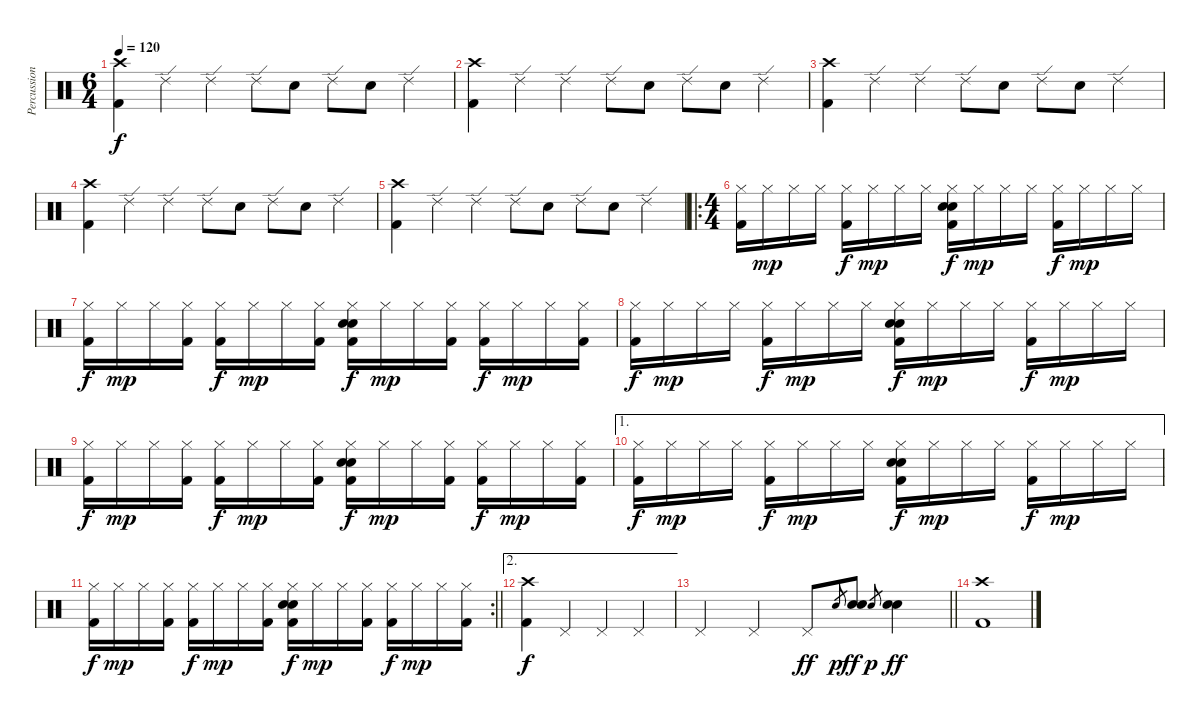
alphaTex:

\track ("Percussions" "Percussion") {instrument percussion}
\staff {score}
\articulation defaults
\ts (6 4)
\tempo 120
\clef neutral
\ks c
("Crash high (hit)" "Kick (hit) 2").4{dy f} "Ride (edge) 2".4 "Ride (edge) 2".4 "Ride (edge) 2".8 "Electric Snare (hit)".8 "Ride (edge) 2".8 "Electric Snare (hit)".8 "Ride (edge) 2".4 |
("Crash high (hit)" "Kick (hit) 2").4 "Ride (edge) 2".4 "Ride (edge) 2".4 "Ride (edge) 2".8 "Electric Snare (hit)".8 "Ride (edge) 2".8 "Electric Snare (hit)".8 "Ride (edge) 2".4 |
("Crash high (hit)" "Kick (hit) 2").4 "Ride (edge) 2".4 "Ride (edge) 2".4 "Ride (edge) 2".8 "Electric Snare (hit)".8 "Ride (edge) 2".8 "Electric Snare (hit)".8 "Ride (edge) 2".4 |
("Crash high (hit)" "Kick (hit) 2").4 "Ride (edge) 2".4 "Ride (edge) 2".4 "Ride (edge) 2".8 "Electric Snare (hit)".8 "Ride (edge) 2".8 "Electric Snare (hit)".8 "Ride (edge) 2".4 |
("Crash high (hit)" "Kick (hit) 2").4 "Ride (edge) 2".4 "Ride (edge) 2".4 "Ride (edge) 2".8 "Electric Snare (hit)".8 "Ride (edge) 2".8 "Electric Snare (hit)".8 "Ride (edge) 2".4 |
\ro
\ts (4 4)
\section ("" "")
("Hi-Hat (closed)" "Kick (hit) 2").16 "Hi-Hat (closed)".16{dy mp} "Hi-Hat (closed)".16 "Hi-Hat (closed)".16 ("Hi-Hat (closed)" "Kick (hit) 2").16{dy f} "Hi-Hat (closed)".16{dy mp} "Hi-Hat (closed)".16 "Hi-Hat (closed)".16 ("Hi-Hat (closed)" "Electric Snare (hit)" "Hand Clap (hit)" "Kick (hit) 2").16{dy f} "Hi-Hat (closed)".16{dy mp} "Hi-Hat (closed)".16 "Hi-Hat (closed)".16 ("Hi-Hat (closed)" "Kick (hit) 2").16{dy f} "Hi-Hat (closed)".16{dy mp} "Hi-Hat (closed)".16 "Hi-Hat (closed)".16 |
("Hi-Hat (closed)" "Kick (hit) 2").16{dy f} "Hi-Hat (closed)".16{dy mp} "Hi-Hat (closed)".16 ("Hi-Hat (closed)" "Kick (hit) 2").16 ("Hi-Hat (closed)" "Kick (hit) 2").16{dy f} "Hi-Hat (closed)".16{dy mp} "Hi-Hat (closed)".16 ("Hi-Hat (closed)" "Kick (hit) 2").16 ("Hi-Hat (closed)" "Electric Snare (hit)" "Hand Clap (hit)" "Kick (hit) 2").16{dy f} "Hi-Hat (closed)".16{dy mp} "Hi-Hat (closed)".16 ("Hi-Hat (closed)" "Kick (hit) 2").16 ("Hi-Hat (closed)" "Kick (hit) 2").16{dy f} "Hi-Hat (closed)".16{dy mp} "Hi-Hat (closed)".16 ("Hi-Hat (closed)" "Kick (hit) 2").16 |
("Hi-Hat (closed)" "Kick (hit) 2").16{dy f} "Hi-Hat (closed)".16{dy mp} "Hi-Hat (closed)".16 "Hi-Hat (closed)".16 ("Hi-Hat (closed)" "Kick (hit) 2").16{dy f} "Hi-Hat (closed)".16{dy mp} "Hi-Hat (closed)".16 "Hi-Hat (closed)".16 ("Hi-Hat (closed)" "Electric Snare (hit)" "Hand Clap (hit)" "Kick (hit) 2").16{dy f} "Hi-Hat (closed)".16{dy mp} "Hi-Hat (closed)".16 "Hi-Hat (closed)".16 ("Hi-Hat (closed)" "Kick (hit) 2").16{dy f} "Hi-Hat (closed)".16{dy mp} "Hi-Hat (closed)".16 "Hi-Hat (closed)".16 |
("Hi-Hat (closed)" "Kick (hit) 2").16{dy f} "Hi-Hat (closed)".16{dy mp} "Hi-Hat (closed)".16 ("Hi-Hat (closed)" "Kick (hit) 2").16 ("Hi-Hat (closed)" "Kick (hit) 2").16{dy f} "Hi-Hat (closed)".16{dy mp} "Hi-Hat (closed)".16 ("Hi-Hat (closed)" "Kick (hit) 2").16 ("Hi-Hat (closed)" "Electric Snare (hit)" "Hand Clap (hit)" "Kick (hit) 2").16{dy f} "Hi-Hat (closed)".16{dy mp} "Hi-Hat (closed)".16 ("Hi-Hat (closed)" "Kick (hit) 2").16 ("Hi-Hat (closed)" "Kick (hit) 2").16{dy f} "Hi-Hat (closed)".16{dy mp} "Hi-Hat (closed)".16 ("Hi-Hat (closed)" "Kick (hit) 2").16 |
\ae 1
("Hi-Hat (closed)" "Kick (hit) 2").16{dy f} "Hi-Hat (closed)".16{dy mp} "Hi-Hat (closed)".16 "Hi-Hat (closed)".16 ("Hi-Hat (closed)" "Kick (hit) 2").16{dy f} "Hi-Hat (closed)".16{dy mp} "Hi-Hat (closed)".16 "Hi-Hat (closed)".16 ("Hi-Hat (closed)" "Electric Snare (hit)" "Hand Clap (hit)" "Kick (hit) 2").16{dy f} "Hi-Hat (closed)".16{dy mp} "Hi-Hat (closed)".16 "Hi-Hat (closed)".16 ("Hi-Hat (closed)" "Kick (hit) 2").16{dy f} "Hi-Hat (closed)".16{dy mp} "Hi-Hat (closed)".16 "Hi-Hat (closed)".16 |
\rc 2
\barLineRight lightlight
("Hi-Hat (closed)" "Kick (hit) 2").16{dy f} "Hi-Hat (closed)".16{dy mp} "Hi-Hat (closed)".16 ("Hi-Hat (closed)" "Kick (hit) 2").16 ("Hi-Hat (closed)" "Kick (hit) 2").16{dy f} "Hi-Hat (closed)".16{dy mp} "Hi-Hat (closed)".16 ("Hi-Hat (closed)" "Kick (hit) 2").16 ("Hi-Hat (closed)" "Electric Snare (hit)" "Hand Clap (hit)" "Kick (hit) 2").16{dy f} "Hi-Hat (closed)".16{dy mp} "Hi-Hat (closed)".16 ("Hi-Hat (closed)" "Kick (hit) 2").16 ("Hi-Hat (closed)" "Kick (hit) 2").16{dy f} "Hi-Hat (closed)".16{dy mp} "Hi-Hat (closed)".16 ("Hi-Hat (closed)" "Kick (hit) 2").16 |
\ae 2
("Crash high (hit)" "Kick (hit) 2").4{dy f} "Pedal Hi-Hat (hit)".4 "Pedal Hi-Hat (hit)".4 "Pedal Hi-Hat (hit)".4 |
\barLineRight lightlight "Pedal Hi-Hat (hit)".4 "Pedal Hi-Hat (hit)".4 "Pedal Hi-Hat (hit)".8{dy ff} "Electric Snare (hit)".8{gr dy p}
("Hand Clap (hit)" "Electric Snare (hit)").8{dy ff} "Electric Snare (hit)".8{gr dy p} ("Hand Clap (hit)" "Electric Snare (hit)").4{dy ff} |
("Crash high (hit)" "Kick (hit) 2").1
